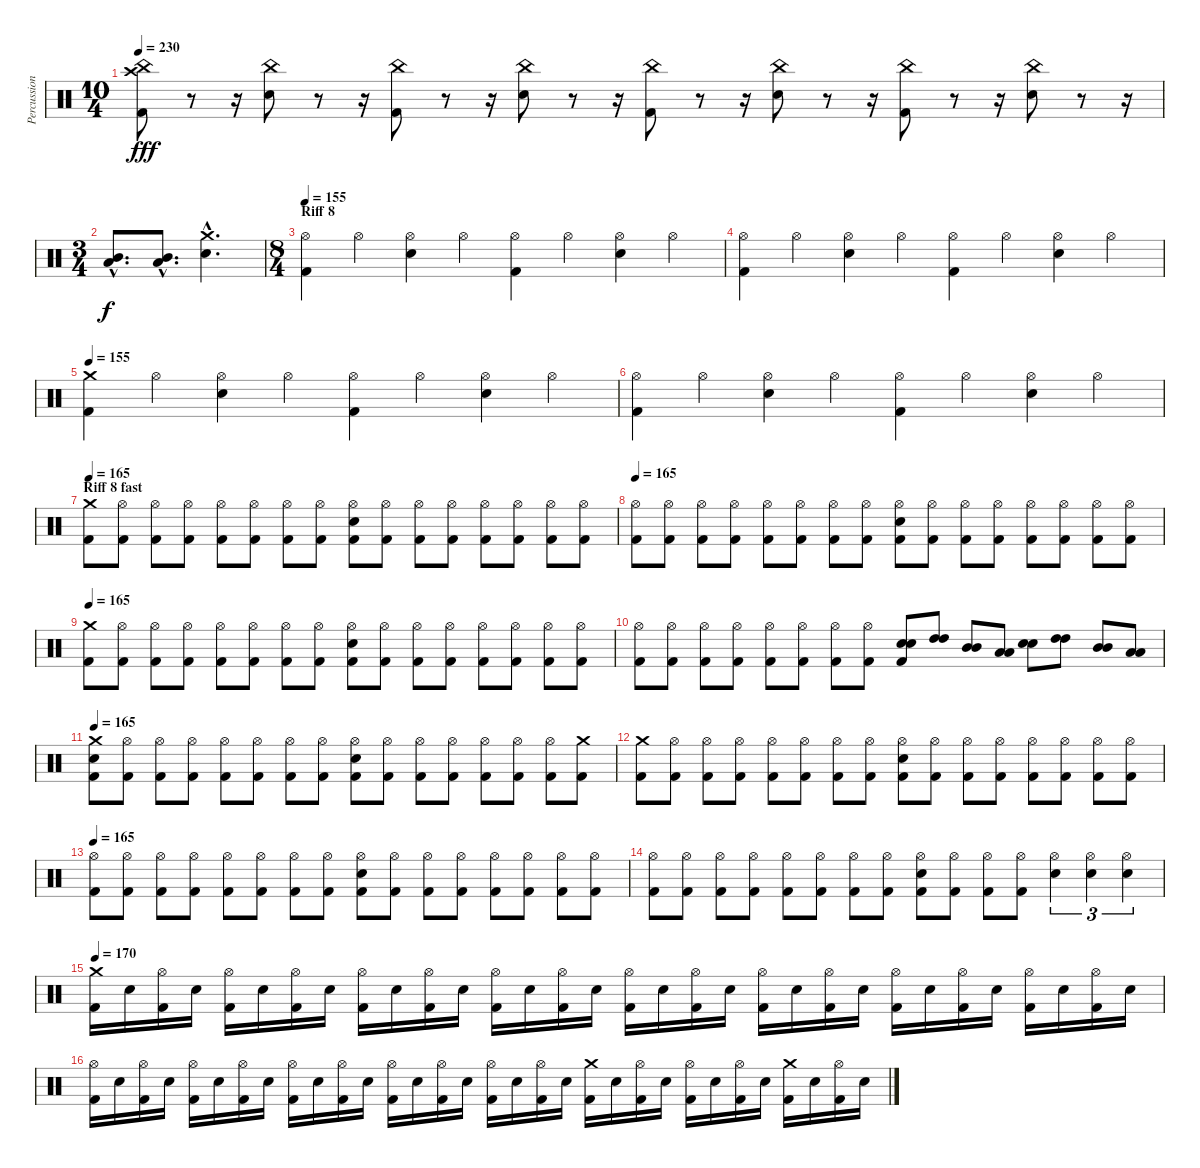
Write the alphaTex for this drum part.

\track ("Percussion" "Percussion") {instrument percussion}
\staff {score}
\articulation defaults
\ts (10 4)
\tempo 230
\clef neutral
\ks c
("China (hit)" "Crash high (hit)" "Kick (hit) 2").8{dy fff} r.8 r.16 ("China (hit)" "Electric Snare (hit)").8 r.8 r.16 ("China (hit)" "Kick (hit) 2").8 r.8 r.16 ("China (hit)" "Electric Snare (hit)").8 r.8 r.16 ("China (hit)" "Kick (hit) 2").8 r.8 r.16 ("China (hit)" "Electric Snare (hit)").8 r.8 r.16 ("China (hit)" "Kick (hit) 2").8 r.8 r.16 ("China (hit)" "Electric Snare (hit)").8 r.8 r.16 |
\ts (3 4)
("Mid Tom (hit)"{hac} "Low Tom (hit)"{hac}).8{d dy f} ("Mid Tom (hit)"{hac} "Low Tom (hit)"{hac}).8{d} ("Crash medium (hit)"{hac} "Electric Snare (hit)"{hac}).4{d} |
\ts (8 4)
\section ("" "Riff 8")
\tempo 155
("Hi-Hat (open)" "Kick (hit) 2").4 "Hi-Hat (open)".4 ("Hi-Hat (open)" "Electric Snare (hit)").4 "Hi-Hat (open)".4 ("Hi-Hat (open)" "Kick (hit) 2").4 "Hi-Hat (open)".4 ("Hi-Hat (open)" "Electric Snare (hit)").4 "Hi-Hat (open)".4 |
("Hi-Hat (open)" "Kick (hit) 2").4 "Hi-Hat (open)".4 ("Hi-Hat (open)" "Electric Snare (hit)").4 "Hi-Hat (open)".4 ("Hi-Hat (open)" "Kick (hit) 2").4 "Hi-Hat (open)".4 ("Hi-Hat (open)" "Electric Snare (hit)").4 "Hi-Hat (open)".4 |
\tempo 155
("Crash medium (hit)" "Kick (hit) 2").4 "Hi-Hat (open)".4 ("Hi-Hat (open)" "Electric Snare (hit)").4 "Hi-Hat (open)".4 ("Hi-Hat (open)" "Kick (hit) 2").4 "Hi-Hat (open)".4 ("Hi-Hat (open)" "Electric Snare (hit)").4 "Hi-Hat (open)".4 |
("Hi-Hat (open)" "Kick (hit) 2").4 "Hi-Hat (open)".4 ("Hi-Hat (open)" "Electric Snare (hit)").4 "Hi-Hat (open)".4 ("Hi-Hat (open)" "Kick (hit) 2").4 "Hi-Hat (open)".4 ("Hi-Hat (open)" "Electric Snare (hit)").4 "Hi-Hat (open)".4 |
\section ("" "Riff 8 fast")
\tempo 165
("Crash medium (hit)" "Kick (hit) 2").8 ("Hi-Hat (open)" "Kick (hit) 2").8 ("Hi-Hat (open)" "Kick (hit) 2").8 ("Hi-Hat (open)" "Kick (hit) 2").8 ("Hi-Hat (open)" "Kick (hit) 2").8 ("Hi-Hat (open)" "Kick (hit) 2").8 ("Hi-Hat (open)" "Kick (hit) 2").8 ("Hi-Hat (open)" "Kick (hit) 2").8 ("Hi-Hat (open)" "Electric Snare (hit)" "Kick (hit) 2").8 ("Hi-Hat (open)" "Kick (hit) 2").8 ("Hi-Hat (open)" "Kick (hit) 2").8 ("Hi-Hat (open)" "Kick (hit) 2").8 ("Hi-Hat (open)" "Kick (hit) 2").8 ("Hi-Hat (open)" "Kick (hit) 2").8 ("Hi-Hat (open)" "Kick (hit) 2").8 ("Hi-Hat (open)" "Kick (hit) 2").8 |
\tempo 165
("Hi-Hat (open)" "Kick (hit) 2").8 ("Hi-Hat (open)" "Kick (hit) 2").8 ("Hi-Hat (open)" "Kick (hit) 2").8 ("Hi-Hat (open)" "Kick (hit) 2").8 ("Hi-Hat (open)" "Kick (hit) 2").8 ("Hi-Hat (open)" "Kick (hit) 2").8 ("Hi-Hat (open)" "Kick (hit) 2").8 ("Hi-Hat (open)" "Kick (hit) 2").8 ("Hi-Hat (open)" "Electric Snare (hit)" "Kick (hit) 2").8 ("Hi-Hat (open)" "Kick (hit) 2").8 ("Hi-Hat (open)" "Kick (hit) 2").8 ("Hi-Hat (open)" "Kick (hit) 2").8 ("Hi-Hat (open)" "Kick (hit) 2").8 ("Hi-Hat (open)" "Kick (hit) 2").8 ("Hi-Hat (open)" "Kick (hit) 2").8 ("Hi-Hat (open)" "Kick (hit) 2").8 |
\tempo 165
("Crash medium (hit)" "Kick (hit) 2").8 ("Hi-Hat (open)" "Kick (hit) 2").8 ("Hi-Hat (open)" "Kick (hit) 2").8 ("Hi-Hat (open)" "Kick (hit) 2").8 ("Hi-Hat (open)" "Kick (hit) 2").8 ("Hi-Hat (open)" "Kick (hit) 2").8 ("Hi-Hat (open)" "Kick (hit) 2").8 ("Hi-Hat (open)" "Kick (hit) 2").8 ("Hi-Hat (open)" "Electric Snare (hit)" "Kick (hit) 2").8 ("Hi-Hat (open)" "Kick (hit) 2").8 ("Hi-Hat (open)" "Kick (hit) 2").8 ("Hi-Hat (open)" "Kick (hit) 2").8 ("Hi-Hat (open)" "Kick (hit) 2").8 ("Hi-Hat (open)" "Kick (hit) 2").8 ("Hi-Hat (open)" "Kick (hit) 2").8 ("Hi-Hat (open)" "Kick (hit) 2").8 |
("Hi-Hat (open)" "Kick (hit) 2").8 ("Hi-Hat (open)" "Kick (hit) 2").8 ("Hi-Hat (open)" "Kick (hit) 2").8 ("Hi-Hat (open)" "Kick (hit) 2").8 ("Hi-Hat (open)" "Kick (hit) 2").8 ("Hi-Hat (open)" "Kick (hit) 2").8 ("Hi-Hat (open)" "Kick (hit) 2").8 ("Hi-Hat (open)" "Kick (hit) 2").8 ("Electric Snare (hit)" "Electric Snare (hit)" "Kick (hit) 2").8 ("High Tom (hit)" "High Tom (hit)").8 ("Mid Tom (hit)" "Mid Tom (hit)").8 ("Low Tom (hit)" "Low Tom (hit)").8 ("Electric Snare (hit)" "Electric Snare (hit)").8 ("High Tom (hit)" "High Tom (hit)").8 ("Mid Tom (hit)" "Mid Tom (hit)").8 ("Low Tom (hit)" "Low Tom (hit)").8 |
\tempo 165
("Crash medium (hit)" "Electric Snare (hit)" "Kick (hit) 2").8 ("Hi-Hat (open)" "Kick (hit) 2").8 ("Hi-Hat (open)" "Kick (hit) 2").8 ("Hi-Hat (open)" "Kick (hit) 2").8 ("Hi-Hat (open)" "Kick (hit) 2").8 ("Hi-Hat (open)" "Kick (hit) 2").8 ("Hi-Hat (open)" "Kick (hit) 2").8 ("Hi-Hat (open)" "Kick (hit) 2").8 ("Hi-Hat (open)" "Electric Snare (hit)" "Kick (hit) 2").8 ("Hi-Hat (open)" "Kick (hit) 2").8 ("Hi-Hat (open)" "Kick (hit) 2").8 ("Hi-Hat (open)" "Kick (hit) 2").8 ("Hi-Hat (open)" "Kick (hit) 2").8 ("Hi-Hat (open)" "Kick (hit) 2").8 ("Hi-Hat (open)" "Kick (hit) 2").8 ("Crash medium (hit)" "Kick (hit) 2").8 |
("Crash medium (hit)" "Kick (hit) 2").8 ("Hi-Hat (open)" "Kick (hit) 2").8 ("Hi-Hat (open)" "Kick (hit) 2").8 ("Hi-Hat (open)" "Kick (hit) 2").8 ("Hi-Hat (open)" "Kick (hit) 2").8 ("Hi-Hat (open)" "Kick (hit) 2").8 ("Hi-Hat (open)" "Kick (hit) 2").8 ("Hi-Hat (open)" "Kick (hit) 2").8 ("Hi-Hat (open)" "Electric Snare (hit)" "Kick (hit) 2").8 ("Hi-Hat (open)" "Kick (hit) 2").8 ("Hi-Hat (open)" "Kick (hit) 2").8 ("Hi-Hat (open)" "Kick (hit) 2").8 ("Hi-Hat (open)" "Kick (hit) 2").8 ("Hi-Hat (open)" "Kick (hit) 2").8 ("Hi-Hat (open)" "Kick (hit) 2").8 ("Hi-Hat (open)" "Kick (hit) 2").8 |
\tempo 165
("Hi-Hat (open)" "Kick (hit) 2").8 ("Hi-Hat (open)" "Kick (hit) 2").8 ("Hi-Hat (open)" "Kick (hit) 2").8 ("Hi-Hat (open)" "Kick (hit) 2").8 ("Hi-Hat (open)" "Kick (hit) 2").8 ("Hi-Hat (open)" "Kick (hit) 2").8 ("Hi-Hat (open)" "Kick (hit) 2").8 ("Hi-Hat (open)" "Kick (hit) 2").8 ("Hi-Hat (open)" "Electric Snare (hit)" "Kick (hit) 2").8 ("Hi-Hat (open)" "Kick (hit) 2").8 ("Hi-Hat (open)" "Kick (hit) 2").8 ("Hi-Hat (open)" "Kick (hit) 2").8 ("Hi-Hat (open)" "Kick (hit) 2").8 ("Hi-Hat (open)" "Kick (hit) 2").8 ("Hi-Hat (open)" "Kick (hit) 2").8 ("Hi-Hat (open)" "Kick (hit) 2").8 |
("Hi-Hat (open)" "Kick (hit) 2").8 ("Hi-Hat (open)" "Kick (hit) 2").8 ("Hi-Hat (open)" "Kick (hit) 2").8 ("Hi-Hat (open)" "Kick (hit) 2").8 ("Hi-Hat (open)" "Kick (hit) 2").8 ("Hi-Hat (open)" "Kick (hit) 2").8 ("Hi-Hat (open)" "Kick (hit) 2").8 ("Hi-Hat (open)" "Kick (hit) 2").8 ("Hi-Hat (open)" "Electric Snare (hit)" "Kick (hit) 2").8 ("Hi-Hat (open)" "Kick (hit) 2").8 ("Hi-Hat (open)" "Kick (hit) 2").8 ("Hi-Hat (open)" "Kick (hit) 2").8 ("Electric Snare (hit)" "Hi-Hat (open)").4{tu (3 2)} ("Electric Snare (hit)" "Hi-Hat (open)").4{tu (3 2)} ("Electric Snare (hit)" "Hi-Hat (open)").4{tu (3 2)} |
\tempo 170
("Crash medium (hit)" "Kick (hit) 2").16 "Electric Snare (hit)".16 ("Hi-Hat (open)" "Kick (hit) 2").16 "Electric Snare (hit)".16 ("Hi-Hat (open)" "Kick (hit) 2").16 "Electric Snare (hit)".16 ("Hi-Hat (open)" "Kick (hit) 2").16 "Electric Snare (hit)".16 ("Hi-Hat (open)" "Kick (hit) 2").16 "Electric Snare (hit)".16 ("Hi-Hat (open)" "Kick (hit) 2").16 "Electric Snare (hit)".16 ("Hi-Hat (open)" "Kick (hit) 2").16 "Electric Snare (hit)".16 ("Hi-Hat (open)" "Kick (hit) 2").16 "Electric Snare (hit)".16 ("Hi-Hat (open)" "Kick (hit) 2").16 "Electric Snare (hit)".16 ("Hi-Hat (open)" "Kick (hit) 2").16 "Electric Snare (hit)".16 ("Hi-Hat (open)" "Kick (hit) 2").16 "Electric Snare (hit)".16 ("Hi-Hat (open)" "Kick (hit) 2").16 "Electric Snare (hit)".16 ("Hi-Hat (open)" "Kick (hit) 2").16 "Electric Snare (hit)".16 ("Hi-Hat (open)" "Kick (hit) 2").16 "Electric Snare (hit)".16 ("Hi-Hat (open)" "Kick (hit) 2").16 "Electric Snare (hit)".16 ("Hi-Hat (open)" "Kick (hit) 2").16 "Electric Snare (hit)".16 |
("Hi-Hat (open)" "Kick (hit) 2").16 "Electric Snare (hit)".16 ("Hi-Hat (open)" "Kick (hit) 2").16 "Electric Snare (hit)".16 ("Hi-Hat (open)" "Kick (hit) 2").16 "Electric Snare (hit)".16 ("Hi-Hat (open)" "Kick (hit) 2").16 "Electric Snare (hit)".16 ("Hi-Hat (open)" "Kick (hit) 2").16 "Electric Snare (hit)".16 ("Hi-Hat (open)" "Kick (hit) 2").16 "Electric Snare (hit)".16 ("Hi-Hat (open)" "Kick (hit) 2").16 "Electric Snare (hit)".16 ("Hi-Hat (open)" "Kick (hit) 2").16 "Electric Snare (hit)".16 ("Hi-Hat (open)" "Kick (hit) 2").16 "Electric Snare (hit)".16 ("Hi-Hat (open)" "Kick (hit) 2").16 "Electric Snare (hit)".16 ("Crash medium (hit)" "Kick (hit) 2").16 "Electric Snare (hit)".16 ("Hi-Hat (open)" "Kick (hit) 2").16 "Electric Snare (hit)".16 ("Hi-Hat (open)" "Kick (hit) 2").16 "Electric Snare (hit)".16 ("Hi-Hat (open)" "Kick (hit) 2").16 "Electric Snare (hit)".16 ("Crash medium (hit)" "Kick (hit) 2").16 "Electric Snare (hit)".16 ("Hi-Hat (open)" "Kick (hit) 2").16 "Electric Snare (hit)".16
